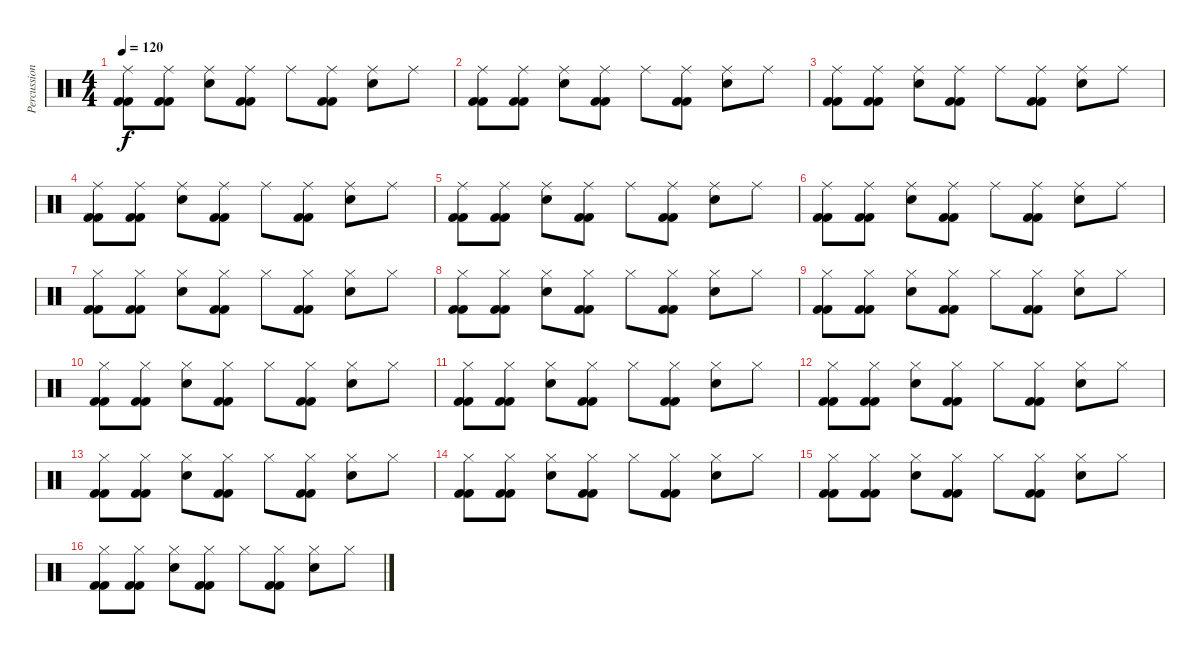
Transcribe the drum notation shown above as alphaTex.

\track ("Percussion" "Percussion") {instrument percussion}
\staff {score}
\articulation defaults
\ts (4 4)
\tempo 120
\clef neutral
\ks c
("Ride (middle)" "Kick (hit) 2" "Kick (hit) 2").8{dy f} ("Ride (middle)" "Kick (hit) 2" "Kick (hit) 2").8 ("Ride (middle)" "Snare (hit) 2").8 ("Ride (middle)" "Kick (hit) 2" "Kick (hit) 2").8 "Ride (middle)".8 ("Ride (middle)" "Kick (hit) 2" "Kick (hit) 2").8 ("Ride (middle)" "Snare (hit) 2").8 "Ride (middle)".8 |
("Ride (middle)" "Kick (hit) 2" "Kick (hit) 2").8 ("Ride (middle)" "Kick (hit) 2" "Kick (hit) 2").8 ("Ride (middle)" "Snare (hit) 2").8 ("Ride (middle)" "Kick (hit) 2" "Kick (hit) 2").8 "Ride (middle)".8 ("Ride (middle)" "Kick (hit) 2" "Kick (hit) 2").8 ("Ride (middle)" "Snare (hit) 2").8 "Ride (middle)".8 |
("Ride (middle)" "Kick (hit) 2" "Kick (hit) 2").8 ("Ride (middle)" "Kick (hit) 2" "Kick (hit) 2").8 ("Ride (middle)" "Snare (hit) 2").8 ("Ride (middle)" "Kick (hit) 2" "Kick (hit) 2").8 "Ride (middle)".8 ("Ride (middle)" "Kick (hit) 2" "Kick (hit) 2").8 ("Ride (middle)" "Snare (hit) 2").8 "Ride (middle)".8 |
("Ride (middle)" "Kick (hit) 2" "Kick (hit) 2").8 ("Ride (middle)" "Kick (hit) 2" "Kick (hit) 2").8 ("Ride (middle)" "Snare (hit) 2").8 ("Ride (middle)" "Kick (hit) 2" "Kick (hit) 2").8 "Ride (middle)".8 ("Ride (middle)" "Kick (hit) 2" "Kick (hit) 2").8 ("Ride (middle)" "Snare (hit) 2").8 "Ride (middle)".8 |
("Ride (middle)" "Kick (hit) 2" "Kick (hit) 2").8 ("Ride (middle)" "Kick (hit) 2" "Kick (hit) 2").8 ("Ride (middle)" "Snare (hit) 2").8 ("Ride (middle)" "Kick (hit) 2" "Kick (hit) 2").8 "Ride (middle)".8 ("Ride (middle)" "Kick (hit) 2" "Kick (hit) 2").8 ("Ride (middle)" "Snare (hit) 2").8 "Ride (middle)".8 |
("Ride (middle)" "Kick (hit) 2" "Kick (hit) 2").8 ("Ride (middle)" "Kick (hit) 2" "Kick (hit) 2").8 ("Ride (middle)" "Snare (hit) 2").8 ("Ride (middle)" "Kick (hit) 2" "Kick (hit) 2").8 "Ride (middle)".8 ("Ride (middle)" "Kick (hit) 2" "Kick (hit) 2").8 ("Ride (middle)" "Snare (hit) 2").8 "Ride (middle)".8 |
("Hi-Hat (closed)" "Kick (hit) 2" "Kick (hit) 2").8 ("Hi-Hat (closed)" "Kick (hit) 2" "Kick (hit) 2").8 ("Hi-Hat (closed)" "Snare (hit) 2").8 ("Hi-Hat (closed)" "Kick (hit) 2" "Kick (hit) 2").8 "Hi-Hat (closed)".8 ("Hi-Hat (closed)" "Kick (hit) 2" "Kick (hit) 2").8 ("Hi-Hat (closed)" "Snare (hit) 2").8 "Hi-Hat (closed)".8 |
("Hi-Hat (closed)" "Kick (hit) 2" "Kick (hit) 2").8 ("Hi-Hat (closed)" "Kick (hit) 2" "Kick (hit) 2").8 ("Hi-Hat (closed)" "Snare (hit) 2").8 ("Hi-Hat (closed)" "Kick (hit) 2" "Kick (hit) 2").8 "Hi-Hat (closed)".8 ("Hi-Hat (closed)" "Kick (hit) 2" "Kick (hit) 2").8 ("Hi-Hat (closed)" "Snare (hit) 2").8 "Hi-Hat (closed)".8 |
("Hi-Hat (closed)" "Kick (hit) 2" "Kick (hit) 2").8 ("Hi-Hat (closed)" "Kick (hit) 2" "Kick (hit) 2").8 ("Hi-Hat (closed)" "Snare (hit) 2").8 ("Hi-Hat (closed)" "Kick (hit) 2" "Kick (hit) 2").8 "Hi-Hat (closed)".8 ("Hi-Hat (closed)" "Kick (hit) 2" "Kick (hit) 2").8 ("Hi-Hat (closed)" "Snare (hit) 2").8 "Hi-Hat (closed)".8 |
("Hi-Hat (closed)" "Kick (hit) 2" "Kick (hit) 2").8 ("Hi-Hat (closed)" "Kick (hit) 2" "Kick (hit) 2").8 ("Hi-Hat (closed)" "Snare (hit) 2").8 ("Hi-Hat (closed)" "Kick (hit) 2" "Kick (hit) 2").8 "Hi-Hat (closed)".8 ("Hi-Hat (closed)" "Kick (hit) 2" "Kick (hit) 2").8 ("Hi-Hat (closed)" "Snare (hit) 2").8 "Hi-Hat (closed)".8 |
("Hi-Hat (closed)" "Kick (hit) 2" "Kick (hit) 2").8 ("Hi-Hat (closed)" "Kick (hit) 2" "Kick (hit) 2").8 ("Hi-Hat (closed)" "Snare (hit) 2").8 ("Hi-Hat (closed)" "Kick (hit) 2" "Kick (hit) 2").8 "Hi-Hat (closed)".8 ("Hi-Hat (closed)" "Kick (hit) 2" "Kick (hit) 2").8 ("Hi-Hat (closed)" "Snare (hit) 2").8 "Hi-Hat (closed)".8 |
("Hi-Hat (closed)" "Kick (hit) 2" "Kick (hit) 2").8 ("Hi-Hat (closed)" "Kick (hit) 2" "Kick (hit) 2").8 ("Hi-Hat (closed)" "Snare (hit) 2").8 ("Hi-Hat (closed)" "Kick (hit) 2" "Kick (hit) 2").8 "Hi-Hat (closed)".8 ("Hi-Hat (closed)" "Kick (hit) 2" "Kick (hit) 2").8 ("Hi-Hat (closed)" "Snare (hit) 2").8 "Hi-Hat (closed)".8 |
("Hi-Hat (closed)" "Kick (hit) 2" "Kick (hit) 2").8 ("Hi-Hat (closed)" "Kick (hit) 2" "Kick (hit) 2").8 ("Hi-Hat (closed)" "Snare (hit) 2").8 ("Hi-Hat (closed)" "Kick (hit) 2" "Kick (hit) 2").8 "Hi-Hat (closed)".8 ("Hi-Hat (closed)" "Kick (hit) 2" "Kick (hit) 2").8 ("Hi-Hat (closed)" "Snare (hit) 2").8 "Hi-Hat (closed)".8 |
("Hi-Hat (closed)" "Kick (hit) 2" "Kick (hit) 2").8 ("Hi-Hat (closed)" "Kick (hit) 2" "Kick (hit) 2").8 ("Hi-Hat (closed)" "Snare (hit) 2").8 ("Hi-Hat (closed)" "Kick (hit) 2" "Kick (hit) 2").8 "Hi-Hat (closed)".8 ("Hi-Hat (closed)" "Kick (hit) 2" "Kick (hit) 2").8 ("Hi-Hat (closed)" "Snare (hit) 2").8 "Hi-Hat (closed)".8 |
("Hi-Hat (closed)" "Kick (hit) 2" "Kick (hit) 2").8 ("Hi-Hat (closed)" "Kick (hit) 2" "Kick (hit) 2").8 ("Hi-Hat (closed)" "Snare (hit) 2").8 ("Hi-Hat (closed)" "Kick (hit) 2" "Kick (hit) 2").8 "Hi-Hat (closed)".8 ("Hi-Hat (closed)" "Kick (hit) 2" "Kick (hit) 2").8 ("Hi-Hat (closed)" "Snare (hit) 2").8 "Hi-Hat (closed)".8 |
("Hi-Hat (closed)" "Kick (hit) 2" "Kick (hit) 2").8 ("Hi-Hat (closed)" "Kick (hit) 2" "Kick (hit) 2").8 ("Hi-Hat (closed)" "Snare (hit) 2").8 ("Hi-Hat (closed)" "Kick (hit) 2" "Kick (hit) 2").8 "Hi-Hat (closed)".8 ("Hi-Hat (closed)" "Kick (hit) 2" "Kick (hit) 2").8 ("Hi-Hat (closed)" "Snare (hit) 2").8 "Hi-Hat (closed)".8
